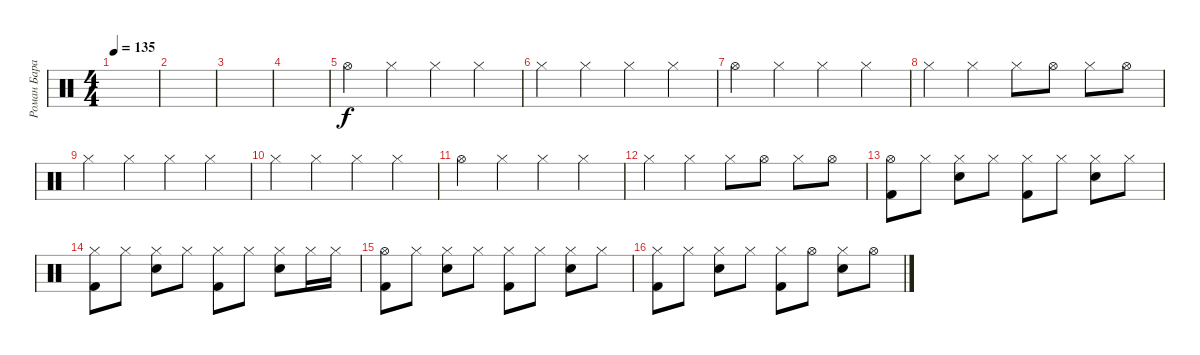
\track ("Роман Баранюк" "Роман Бара") {instrument percussion}
\staff {score}
\articulation defaults
\ts (4 4)
\tempo 135
\clef neutral
\ks c
|
|
|
|
"Hi-Hat (open)".4 "Hi-Hat (closed)".4 "Hi-Hat (closed)".4 "Hi-Hat (closed)".4 |
"Hi-Hat (closed)".4 "Hi-Hat (closed)".4 "Hi-Hat (closed)".4 "Hi-Hat (closed)".4 |
"Hi-Hat (open)".4 "Hi-Hat (closed)".4 "Hi-Hat (closed)".4 "Hi-Hat (closed)".4 |
"Hi-Hat (closed)".4 "Hi-Hat (closed)".4 "Hi-Hat (closed)".8 "Hi-Hat (open)".8 "Hi-Hat (closed)".8 "Hi-Hat (open)".8 |
"Hi-Hat (closed)".4 "Hi-Hat (closed)".4 "Hi-Hat (closed)".4 "Hi-Hat (closed)".4 |
"Hi-Hat (closed)".4 "Hi-Hat (closed)".4 "Hi-Hat (closed)".4 "Hi-Hat (closed)".4 |
"Hi-Hat (open)".4 "Hi-Hat (closed)".4 "Hi-Hat (closed)".4 "Hi-Hat (closed)".4 |
"Hi-Hat (closed)".4 "Hi-Hat (closed)".4 "Hi-Hat (closed)".8 "Hi-Hat (open)".8 "Hi-Hat (closed)".8 "Hi-Hat (open)".8 |
("Hi-Hat (open)" "Kick (hit) 2").8 "Hi-Hat (closed)".8 ("Hi-Hat (closed)" "Snare (hit) 2").8 "Hi-Hat (closed)".8 ("Hi-Hat (closed)" "Kick (hit) 2").8 "Hi-Hat (closed)".8 ("Hi-Hat (closed)" "Snare (hit) 2").8 "Hi-Hat (closed)".8 |
("Hi-Hat (closed)" "Kick (hit) 2").8 "Hi-Hat (closed)".8 ("Hi-Hat (closed)" "Snare (hit) 2").8 "Hi-Hat (closed)".8 ("Hi-Hat (closed)" "Kick (hit) 2").8 "Hi-Hat (closed)".8 ("Hi-Hat (closed)" "Snare (hit) 2").8 "Hi-Hat (closed)".16 "Hi-Hat (closed)".16 |
("Hi-Hat (open)" "Kick (hit) 2").8 "Hi-Hat (closed)".8 ("Hi-Hat (closed)" "Snare (hit) 2").8 "Hi-Hat (closed)".8 ("Hi-Hat (closed)" "Kick (hit) 2").8 "Hi-Hat (closed)".8 ("Hi-Hat (closed)" "Snare (hit) 2").8 "Hi-Hat (closed)".8 |
("Hi-Hat (closed)" "Kick (hit) 2").8 "Hi-Hat (closed)".8 ("Hi-Hat (closed)" "Snare (hit) 2").8 "Hi-Hat (closed)".8 ("Hi-Hat (closed)" "Kick (hit) 2").8 "Hi-Hat (open)".8 ("Hi-Hat (closed)" "Snare (hit) 2").8 "Hi-Hat (open)".8
